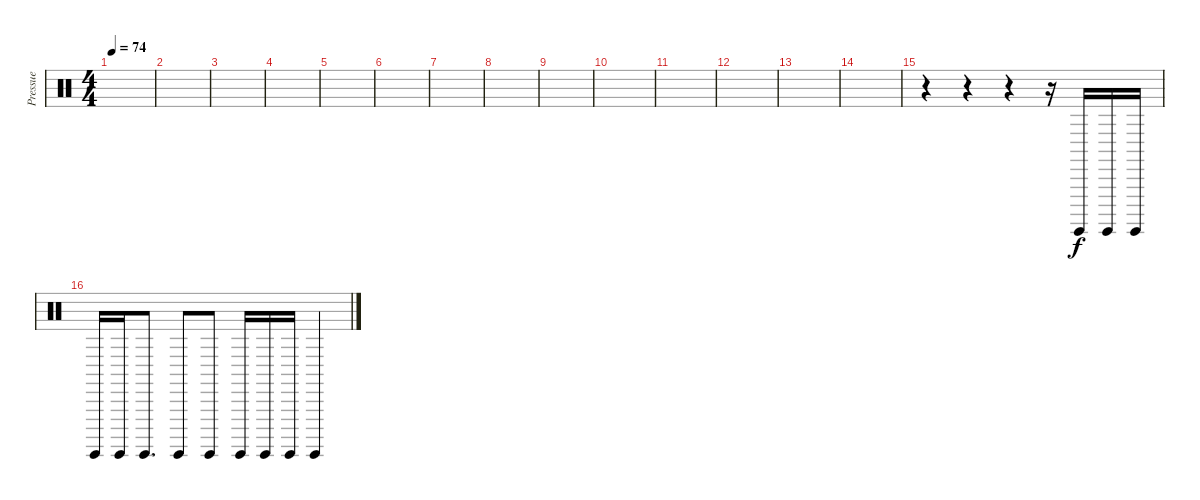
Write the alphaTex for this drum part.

\track ("Pressue" "Pressue") {instrument percussion}
\staff {score}
\articulation defaults
\ts (4 4)
\tempo 74
\clef neutral
\ks c
|
|
|
|
|
|
|
|
|
|
|
|
|
|
r.4 r.4 r.4 r.16 "Surdo (hit)".16 "Surdo (hit)".16 "Surdo (hit)".16 |
"Surdo (hit)".16 "Surdo (hit)".16 "Surdo (hit)".8{d} "Surdo (hit)".8 "Surdo (hit)".8 "Surdo (hit)".16 "Surdo (hit)".16 "Surdo (hit)".16 "Surdo (hit)".4
